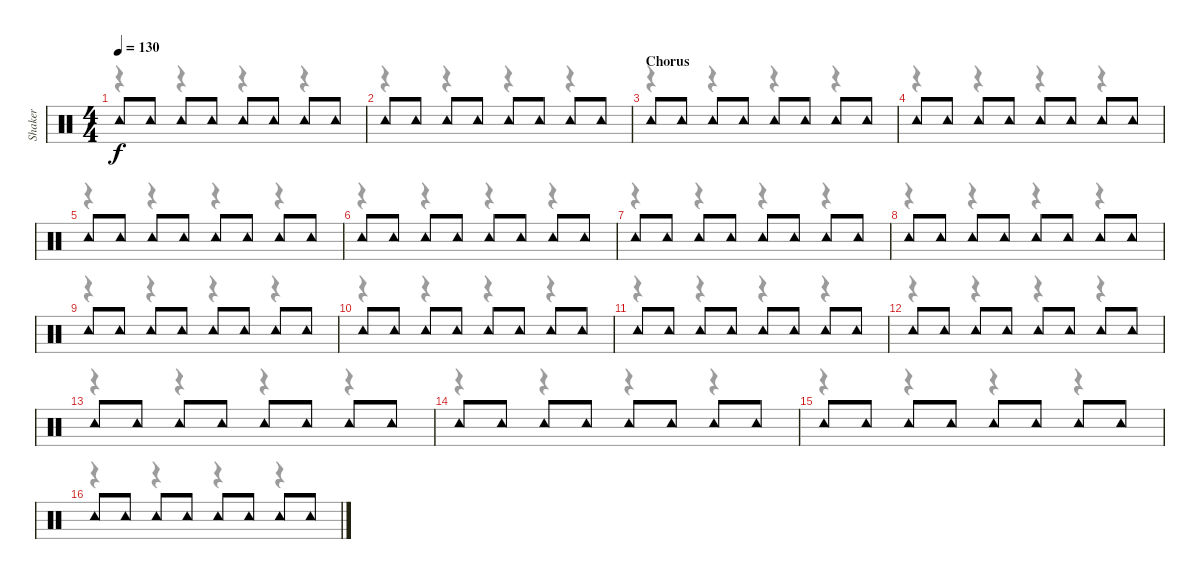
\track ("Shaker" "Shaker") {instrument percussion}
\staff {score}
\articulation defaults
\voice
\ts (4 4)
\tempo 130
\clef neutral
\ks c "Tambourine (hit)".8{dy f} "Tambourine (hit)".8 "Tambourine (hit)".8 "Tambourine (hit)".8 "Tambourine (hit)".8 "Tambourine (hit)".8 "Tambourine (hit)".8 "Tambourine (hit)".8
|
"Tambourine (hit)".8 "Tambourine (hit)".8 "Tambourine (hit)".8 "Tambourine (hit)".8 "Tambourine (hit)".8 "Tambourine (hit)".8 "Tambourine (hit)".8 "Tambourine (hit)".8 |
\section ("" "Chorus")
"Tambourine (hit)".8 "Tambourine (hit)".8 "Tambourine (hit)".8 "Tambourine (hit)".8 "Tambourine (hit)".8 "Tambourine (hit)".8 "Tambourine (hit)".8 "Tambourine (hit)".8 |
"Tambourine (hit)".8 "Tambourine (hit)".8 "Tambourine (hit)".8 "Tambourine (hit)".8 "Tambourine (hit)".8 "Tambourine (hit)".8 "Tambourine (hit)".8 "Tambourine (hit)".8 |
"Tambourine (hit)".8 "Tambourine (hit)".8 "Tambourine (hit)".8 "Tambourine (hit)".8 "Tambourine (hit)".8 "Tambourine (hit)".8 "Tambourine (hit)".8 "Tambourine (hit)".8 |
"Tambourine (hit)".8 "Tambourine (hit)".8 "Tambourine (hit)".8 "Tambourine (hit)".8 "Tambourine (hit)".8 "Tambourine (hit)".8 "Tambourine (hit)".8 "Tambourine (hit)".8 |
"Tambourine (hit)".8 "Tambourine (hit)".8 "Tambourine (hit)".8 "Tambourine (hit)".8 "Tambourine (hit)".8 "Tambourine (hit)".8 "Tambourine (hit)".8 "Tambourine (hit)".8 |
"Tambourine (hit)".8 "Tambourine (hit)".8 "Tambourine (hit)".8 "Tambourine (hit)".8 "Tambourine (hit)".8 "Tambourine (hit)".8 "Tambourine (hit)".8 "Tambourine (hit)".8 |
"Tambourine (hit)".8 "Tambourine (hit)".8 "Tambourine (hit)".8 "Tambourine (hit)".8 "Tambourine (hit)".8 "Tambourine (hit)".8 "Tambourine (hit)".8 "Tambourine (hit)".8 |
"Tambourine (hit)".8 "Tambourine (hit)".8 "Tambourine (hit)".8 "Tambourine (hit)".8 "Tambourine (hit)".8 "Tambourine (hit)".8 "Tambourine (hit)".8 "Tambourine (hit)".8 |
"Tambourine (hit)".8 "Tambourine (hit)".8 "Tambourine (hit)".8 "Tambourine (hit)".8 "Tambourine (hit)".8 "Tambourine (hit)".8 "Tambourine (hit)".8 "Tambourine (hit)".8 |
"Tambourine (hit)".8 "Tambourine (hit)".8 "Tambourine (hit)".8 "Tambourine (hit)".8 "Tambourine (hit)".8 "Tambourine (hit)".8 "Tambourine (hit)".8 "Tambourine (hit)".8 |
"Tambourine (hit)".8 "Tambourine (hit)".8 "Tambourine (hit)".8 "Tambourine (hit)".8 "Tambourine (hit)".8 "Tambourine (hit)".8 "Tambourine (hit)".8 "Tambourine (hit)".8 |
"Tambourine (hit)".8 "Tambourine (hit)".8 "Tambourine (hit)".8 "Tambourine (hit)".8 "Tambourine (hit)".8 "Tambourine (hit)".8 "Tambourine (hit)".8 "Tambourine (hit)".8 |
"Tambourine (hit)".8 "Tambourine (hit)".8 "Tambourine (hit)".8 "Tambourine (hit)".8 "Tambourine (hit)".8 "Tambourine (hit)".8 "Tambourine (hit)".8 "Tambourine (hit)".8 |
"Tambourine (hit)".8 "Tambourine (hit)".8 "Tambourine (hit)".8 "Tambourine (hit)".8 "Tambourine (hit)".8 "Tambourine (hit)".8 "Tambourine (hit)".8 "Tambourine (hit)".8
\voice
\clef neutral
\ottava regular
\simile none
\ks c
r.4{dy f} r.4 r.4 r.4 |
r.4 r.4 r.4 r.4 |
r.4 r.4 r.4 r.4 |
r.4 r.4 r.4 r.4 |
r.4 r.4 r.4 r.4 |
r.4 r.4 r.4 r.4 |
r.4 r.4 r.4 r.4 |
r.4 r.4 r.4 r.4 |
r.4 r.4 r.4 r.4 |
r.4 r.4 r.4 r.4 |
r.4 r.4 r.4 r.4 |
r.4 r.4 r.4 r.4 |
r.4 r.4 r.4 r.4 |
r.4 r.4 r.4 r.4 |
r.4 r.4 r.4 r.4 |
r.4 r.4 r.4 r.4
